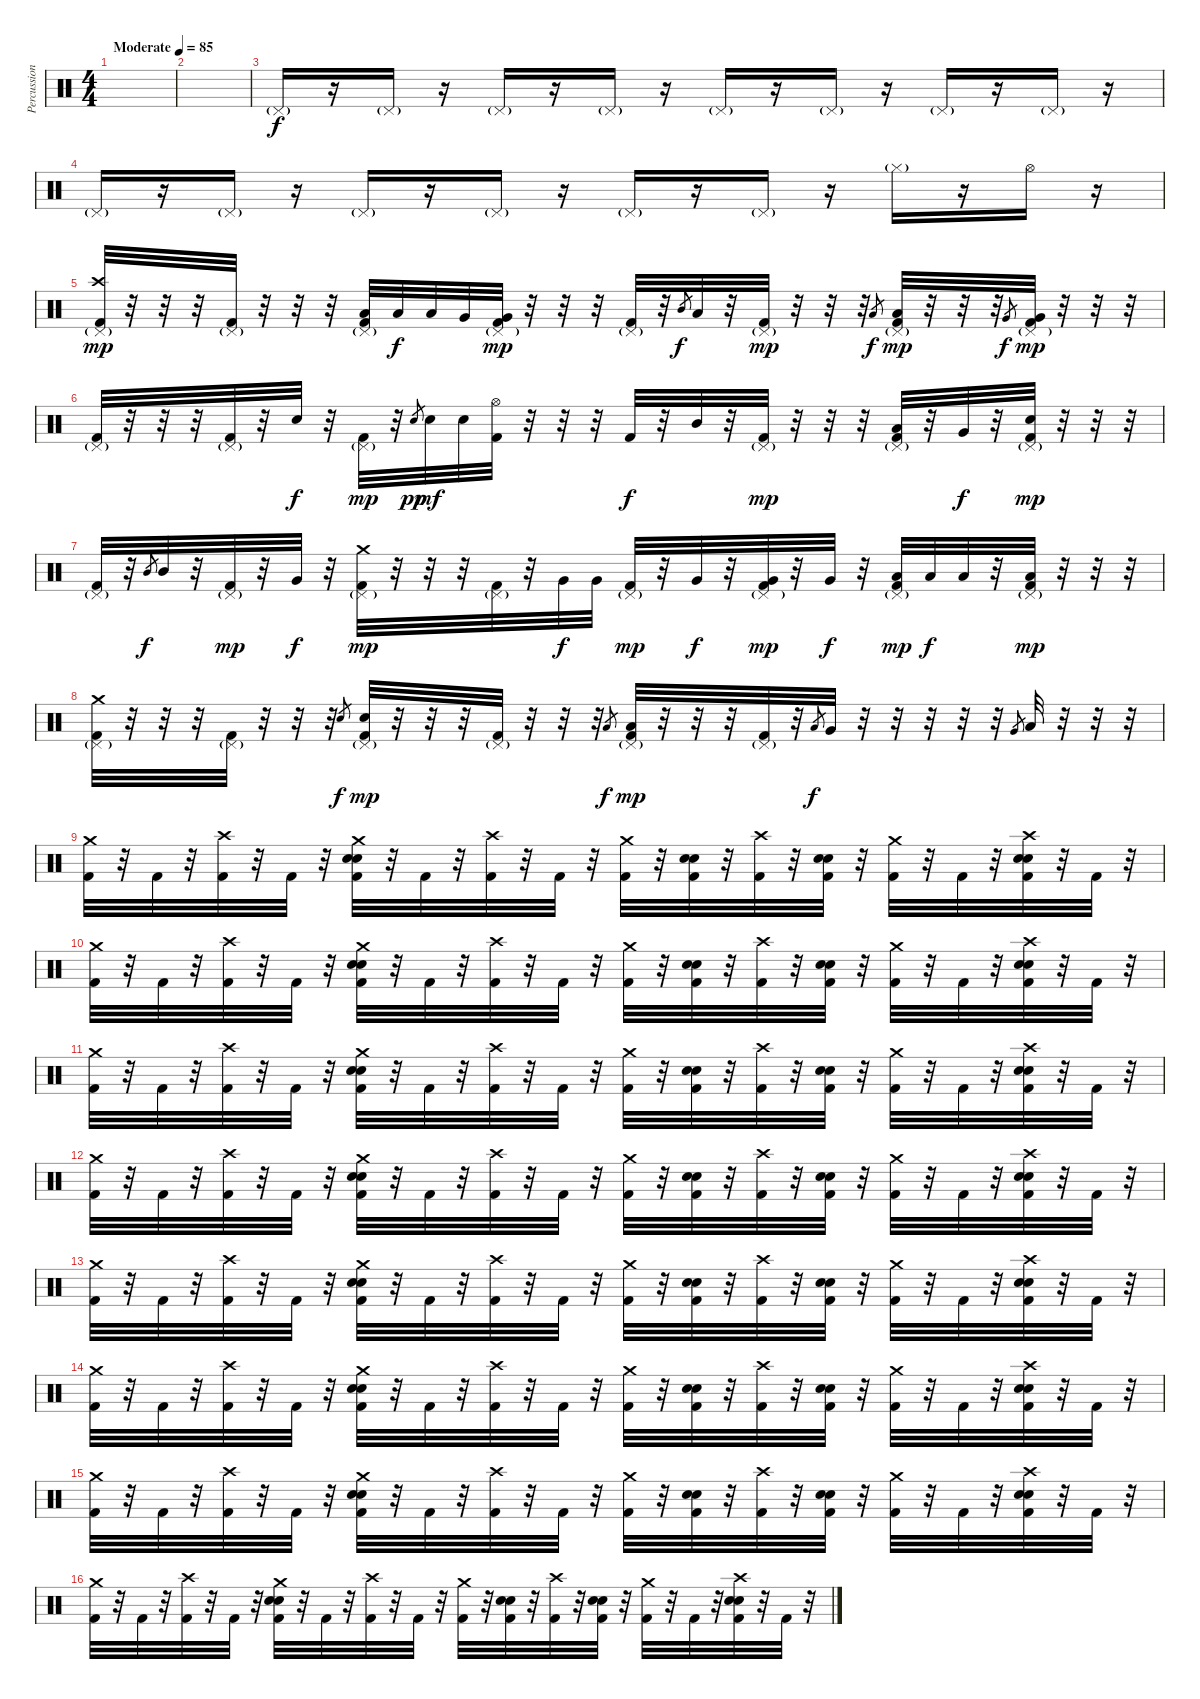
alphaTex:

\track ("Percussion" "Percussion") {instrument percussion}
\staff {score}
\articulation defaults
\ts (4 4)
\tempo (85 "Moderate")
\clef neutral
\ks c
|
|
"Pedal Hi-Hat (hit)"{g}.16 r.16 "Pedal Hi-Hat (hit)"{g}.16 r.16 "Pedal Hi-Hat (hit)"{g}.16 r.16 "Pedal Hi-Hat (hit)"{g}.16 r.16 "Pedal Hi-Hat (hit)"{g}.16 r.16 "Pedal Hi-Hat (hit)"{g}.16 r.16 "Pedal Hi-Hat (hit)"{g}.16 r.16 "Pedal Hi-Hat (hit)"{g}.16 r.16 |
"Pedal Hi-Hat (hit)"{g}.16 r.16 "Pedal Hi-Hat (hit)"{g}.16 r.16 "Pedal Hi-Hat (hit)"{g}.16 r.16 "Pedal Hi-Hat (hit)"{g}.16 r.16 "Pedal Hi-Hat (hit)"{g}.16 r.16 "Pedal Hi-Hat (hit)"{g}.16 r.16 "Hi-Hat (closed)"{g}.16 r.16 "Hi-Hat (open)".16{dy f} r.16 |
("Crash high (hit)" "Pedal Hi-Hat (hit)"{g} "Kick (hit) 2").32{dy mp} r.32 r.32 r.32 ("Pedal Hi-Hat (hit)"{g} "Kick (hit) 2").32 r.32 r.32 r.32 ("Pedal Hi-Hat (hit)"{g} "Low Tom (hit)" "Kick (hit) 2").32 "Low Tom (hit)".32{dy f} "Low Tom (hit)".32 "Very Low Tom (hit)".32 ("Pedal Hi-Hat (hit)"{g} "Very Low Tom (hit)" "Kick (hit) 2").32{dy mp} r.32 r.32 r.32 ("Pedal Hi-Hat (hit)"{g} "Kick (hit) 2").32 r.32 "Mid Tom (hit)".8{gr dy f} "Low Tom (hit)".32 r.32 ("Pedal Hi-Hat (hit)"{g} "Kick (hit) 2").32{dy mp} r.32 r.32 r.32 "Low Tom (hit)".8{gr dy f} ("Pedal Hi-Hat (hit)"{g} "Low Tom (hit)" "Kick (hit) 2").32{dy mp} r.32 r.32 r.32 "Very Low Tom (hit)".8{gr dy f} ("Pedal Hi-Hat (hit)"{g} "Very Low Tom (hit)" "Kick (hit) 2").32{dy mp} r.32 r.32 r.32 |
("Pedal Hi-Hat (hit)"{g} "Kick (hit) 2").32 r.32 r.32 r.32 ("Pedal Hi-Hat (hit)"{g} "Kick (hit) 2").32 r.32 "Electric Snare (hit)".32{dy f} r.32 ("Pedal Hi-Hat (hit)"{g} "Kick (hit) 2").32{dy mp} r.32 "Electric Snare (hit)".8{gr dy pp} "Electric Snare (hit)".32{dy mf} "Electric Snare (hit)".32 ("Hi-Hat (open)" "Kick (hit) 2").32 r.32 r.32 r.32 "Kick (hit) 2".32{dy f} r.32 "Mid Tom (hit)".32 r.32 ("Pedal Hi-Hat (hit)"{g} "Kick (hit) 2").32{dy mp} r.32 r.32 r.32 ("Pedal Hi-Hat (hit)"{g} "Low Tom (hit)" "Kick (hit) 2").32 r.32 "Very Low Tom (hit)".32{dy f} r.32 ("Pedal Hi-Hat (hit)"{g} "Electric Snare (hit)" "Kick (hit) 2").32{dy mp} r.32 r.32 r.32 |
("Pedal Hi-Hat (hit)"{g} "Kick (hit) 2").32 r.32 "Mid Tom (hit)".8{gr dy f} "Mid Tom (hit)".32 r.32 ("Pedal Hi-Hat (hit)"{g} "Kick (hit) 2").32{dy mp} r.32 "Very Low Tom (hit)".32{dy f} r.32 ("Crash medium (hit)" "Pedal Hi-Hat (hit)"{g} "Kick (hit) 2").32{dy mp} r.32 r.32 r.32 ("Pedal Hi-Hat (hit)"{g} "Kick (hit) 2").32 r.32 "Very Low Tom (hit)".32{dy f} "Very Low Tom (hit)".32 ("Pedal Hi-Hat (hit)"{g} "Kick (hit) 2").32{dy mp} r.32 "Very Low Tom (hit)".32{dy f} r.32 ("Pedal Hi-Hat (hit)"{g} "Very Low Tom (hit)" "Kick (hit) 2").32{dy mp} r.32 "Very Low Tom (hit)".32{dy f} r.32 ("Pedal Hi-Hat (hit)"{g} "Low Tom (hit)" "Kick (hit) 2").32{dy mp} "Low Tom (hit)".32{dy f} "Low Tom (hit)".32 r.32 ("Pedal Hi-Hat (hit)"{g} "Low Tom (hit)" "Kick (hit) 2").32{dy mp} r.32 r.32 r.32 |
("Crash medium (hit)" "Pedal Hi-Hat (hit)"{g} "Kick (hit) 2").32 r.32 r.32 r.32 ("Pedal Hi-Hat (hit)"{g} "Kick (hit) 2").32 r.32 r.32 r.32 "Electric Snare (hit)".8{gr dy f} ("Pedal Hi-Hat (hit)"{g} "Electric Snare (hit)" "Kick (hit) 2").32{dy mp} r.32 r.32 r.32 ("Pedal Hi-Hat (hit)"{g} "Kick (hit) 2").32 r.32 r.32 r.32 "Low Tom (hit)".8{gr dy f} ("Pedal Hi-Hat (hit)"{g} "Low Tom (hit)" "Kick (hit) 2").32{dy mp} r.32 r.32 r.32 ("Pedal Hi-Hat (hit)"{g} "Kick (hit) 2").32 r.32 "Low Tom (hit)".8{gr dy f} "Very Low Tom (hit)".32 r.32 r.32 r.32 r.32 r.32 "Very Low Tom (hit)".8{gr} "Low Floor Tom (hit)".32 r.32 r.32 r.32 |
("Crash medium (hit)" "Kick (hit) 2").32 r.32 "Kick (hit) 2".32 r.32 ("Crash high (hit)" "Kick (hit) 2").32 r.32 "Kick (hit) 2".32 r.32 ("Crash medium (hit)" "Electric Snare (hit)" "Electric Snare (hit)" "Kick (hit) 2").32 r.32 "Kick (hit) 2".32 r.32 ("Crash high (hit)" "Kick (hit) 2").32 r.32 "Kick (hit) 2".32 r.32 ("Crash medium (hit)" "Kick (hit) 2").32 r.32 ("Electric Snare (hit)" "Electric Snare (hit)" "Kick (hit) 2").32 r.32 ("Crash high (hit)" "Kick (hit) 2").32 r.32 ("Electric Snare (hit)" "Electric Snare (hit)" "Kick (hit) 2").32 r.32 ("Crash medium (hit)" "Kick (hit) 2").32 r.32 "Kick (hit) 2".32 r.32 ("Crash high (hit)" "Electric Snare (hit)" "Electric Snare (hit)" "Kick (hit) 2").32 r.32 "Kick (hit) 2".32 r.32 |
("Crash medium (hit)" "Kick (hit) 2").32 r.32 "Kick (hit) 2".32 r.32 ("Crash high (hit)" "Kick (hit) 2").32 r.32 "Kick (hit) 2".32 r.32 ("Crash medium (hit)" "Electric Snare (hit)" "Electric Snare (hit)" "Kick (hit) 2").32 r.32 "Kick (hit) 2".32 r.32 ("Crash high (hit)" "Kick (hit) 2").32 r.32 "Kick (hit) 2".32 r.32 ("Crash medium (hit)" "Kick (hit) 2").32 r.32 ("Electric Snare (hit)" "Electric Snare (hit)" "Kick (hit) 2").32 r.32 ("Crash high (hit)" "Kick (hit) 2").32 r.32 ("Electric Snare (hit)" "Electric Snare (hit)" "Kick (hit) 2").32 r.32 ("Crash medium (hit)" "Kick (hit) 2").32 r.32 "Kick (hit) 2".32 r.32 ("Crash high (hit)" "Electric Snare (hit)" "Electric Snare (hit)" "Kick (hit) 2").32 r.32 "Kick (hit) 2".32 r.32 |
("Crash medium (hit)" "Kick (hit) 2").32 r.32 "Kick (hit) 2".32 r.32 ("Crash high (hit)" "Kick (hit) 2").32 r.32 "Kick (hit) 2".32 r.32 ("Crash medium (hit)" "Electric Snare (hit)" "Electric Snare (hit)" "Kick (hit) 2").32 r.32 "Kick (hit) 2".32 r.32 ("Crash high (hit)" "Kick (hit) 2").32 r.32 "Kick (hit) 2".32 r.32 ("Crash medium (hit)" "Kick (hit) 2").32 r.32 ("Electric Snare (hit)" "Electric Snare (hit)" "Kick (hit) 2").32 r.32 ("Crash high (hit)" "Kick (hit) 2").32 r.32 ("Electric Snare (hit)" "Electric Snare (hit)" "Kick (hit) 2").32 r.32 ("Crash medium (hit)" "Kick (hit) 2").32 r.32 "Kick (hit) 2".32 r.32 ("Crash high (hit)" "Electric Snare (hit)" "Electric Snare (hit)" "Kick (hit) 2").32 r.32 "Kick (hit) 2".32 r.32 |
("Crash medium (hit)" "Kick (hit) 2").32 r.32 "Kick (hit) 2".32 r.32 ("Crash high (hit)" "Kick (hit) 2").32 r.32 "Kick (hit) 2".32 r.32 ("Crash medium (hit)" "Electric Snare (hit)" "Electric Snare (hit)" "Kick (hit) 2").32 r.32 "Kick (hit) 2".32 r.32 ("Crash high (hit)" "Kick (hit) 2").32 r.32 "Kick (hit) 2".32 r.32 ("Crash medium (hit)" "Kick (hit) 2").32 r.32 ("Electric Snare (hit)" "Electric Snare (hit)" "Kick (hit) 2").32 r.32 ("Crash high (hit)" "Kick (hit) 2").32 r.32 ("Electric Snare (hit)" "Electric Snare (hit)" "Kick (hit) 2").32 r.32 ("Crash medium (hit)" "Kick (hit) 2").32 r.32 "Kick (hit) 2".32 r.32 ("Crash high (hit)" "Electric Snare (hit)" "Electric Snare (hit)" "Kick (hit) 2").32 r.32 "Kick (hit) 2".32 r.32 |
("Crash medium (hit)" "Kick (hit) 2").32 r.32 "Kick (hit) 2".32 r.32 ("Crash high (hit)" "Kick (hit) 2").32 r.32 "Kick (hit) 2".32 r.32 ("Crash medium (hit)" "Electric Snare (hit)" "Electric Snare (hit)" "Kick (hit) 2").32 r.32 "Kick (hit) 2".32 r.32 ("Crash high (hit)" "Kick (hit) 2").32 r.32 "Kick (hit) 2".32 r.32 ("Crash medium (hit)" "Kick (hit) 2").32 r.32 ("Electric Snare (hit)" "Electric Snare (hit)" "Kick (hit) 2").32 r.32 ("Crash high (hit)" "Kick (hit) 2").32 r.32 ("Electric Snare (hit)" "Electric Snare (hit)" "Kick (hit) 2").32 r.32 ("Crash medium (hit)" "Kick (hit) 2").32 r.32 "Kick (hit) 2".32 r.32 ("Crash high (hit)" "Electric Snare (hit)" "Electric Snare (hit)" "Kick (hit) 2").32 r.32 "Kick (hit) 2".32 r.32 |
("Crash medium (hit)" "Kick (hit) 2").32 r.32 "Kick (hit) 2".32 r.32 ("Crash high (hit)" "Kick (hit) 2").32 r.32 "Kick (hit) 2".32 r.32 ("Crash medium (hit)" "Electric Snare (hit)" "Electric Snare (hit)" "Kick (hit) 2").32 r.32 "Kick (hit) 2".32 r.32 ("Crash high (hit)" "Kick (hit) 2").32 r.32 "Kick (hit) 2".32 r.32 ("Crash medium (hit)" "Kick (hit) 2").32 r.32 ("Electric Snare (hit)" "Electric Snare (hit)" "Kick (hit) 2").32 r.32 ("Crash high (hit)" "Kick (hit) 2").32 r.32 ("Electric Snare (hit)" "Electric Snare (hit)" "Kick (hit) 2").32 r.32 ("Crash medium (hit)" "Kick (hit) 2").32 r.32 "Kick (hit) 2".32 r.32 ("Crash high (hit)" "Electric Snare (hit)" "Electric Snare (hit)" "Kick (hit) 2").32 r.32 "Kick (hit) 2".32 r.32 |
("Crash medium (hit)" "Kick (hit) 2").32 r.32 "Kick (hit) 2".32 r.32 ("Crash high (hit)" "Kick (hit) 2").32 r.32 "Kick (hit) 2".32 r.32 ("Crash medium (hit)" "Electric Snare (hit)" "Electric Snare (hit)" "Kick (hit) 2").32 r.32 "Kick (hit) 2".32 r.32 ("Crash high (hit)" "Kick (hit) 2").32 r.32 "Kick (hit) 2".32 r.32 ("Crash medium (hit)" "Kick (hit) 2").32 r.32 ("Electric Snare (hit)" "Electric Snare (hit)" "Kick (hit) 2").32 r.32 ("Crash high (hit)" "Kick (hit) 2").32 r.32 ("Electric Snare (hit)" "Electric Snare (hit)" "Kick (hit) 2").32 r.32 ("Crash medium (hit)" "Kick (hit) 2").32 r.32 "Kick (hit) 2".32 r.32 ("Crash high (hit)" "Electric Snare (hit)" "Electric Snare (hit)" "Kick (hit) 2").32 r.32 "Kick (hit) 2".32 r.32 |
("Crash medium (hit)" "Kick (hit) 2").32 r.32 "Kick (hit) 2".32 r.32 ("Crash high (hit)" "Kick (hit) 2").32 r.32 "Kick (hit) 2".32 r.32 ("Crash medium (hit)" "Electric Snare (hit)" "Electric Snare (hit)" "Kick (hit) 2").32 r.32 "Kick (hit) 2".32 r.32 ("Crash high (hit)" "Kick (hit) 2").32 r.32 "Kick (hit) 2".32 r.32 ("Crash medium (hit)" "Kick (hit) 2").32 r.32 ("Electric Snare (hit)" "Electric Snare (hit)" "Kick (hit) 2").32 r.32 ("Crash high (hit)" "Kick (hit) 2").32 r.32 ("Electric Snare (hit)" "Electric Snare (hit)" "Kick (hit) 2").32 r.32 ("Crash medium (hit)" "Kick (hit) 2").32 r.32 "Kick (hit) 2".32 r.32 ("Crash high (hit)" "Electric Snare (hit)" "Electric Snare (hit)" "Kick (hit) 2").32 r.32 "Kick (hit) 2".32 r.32
